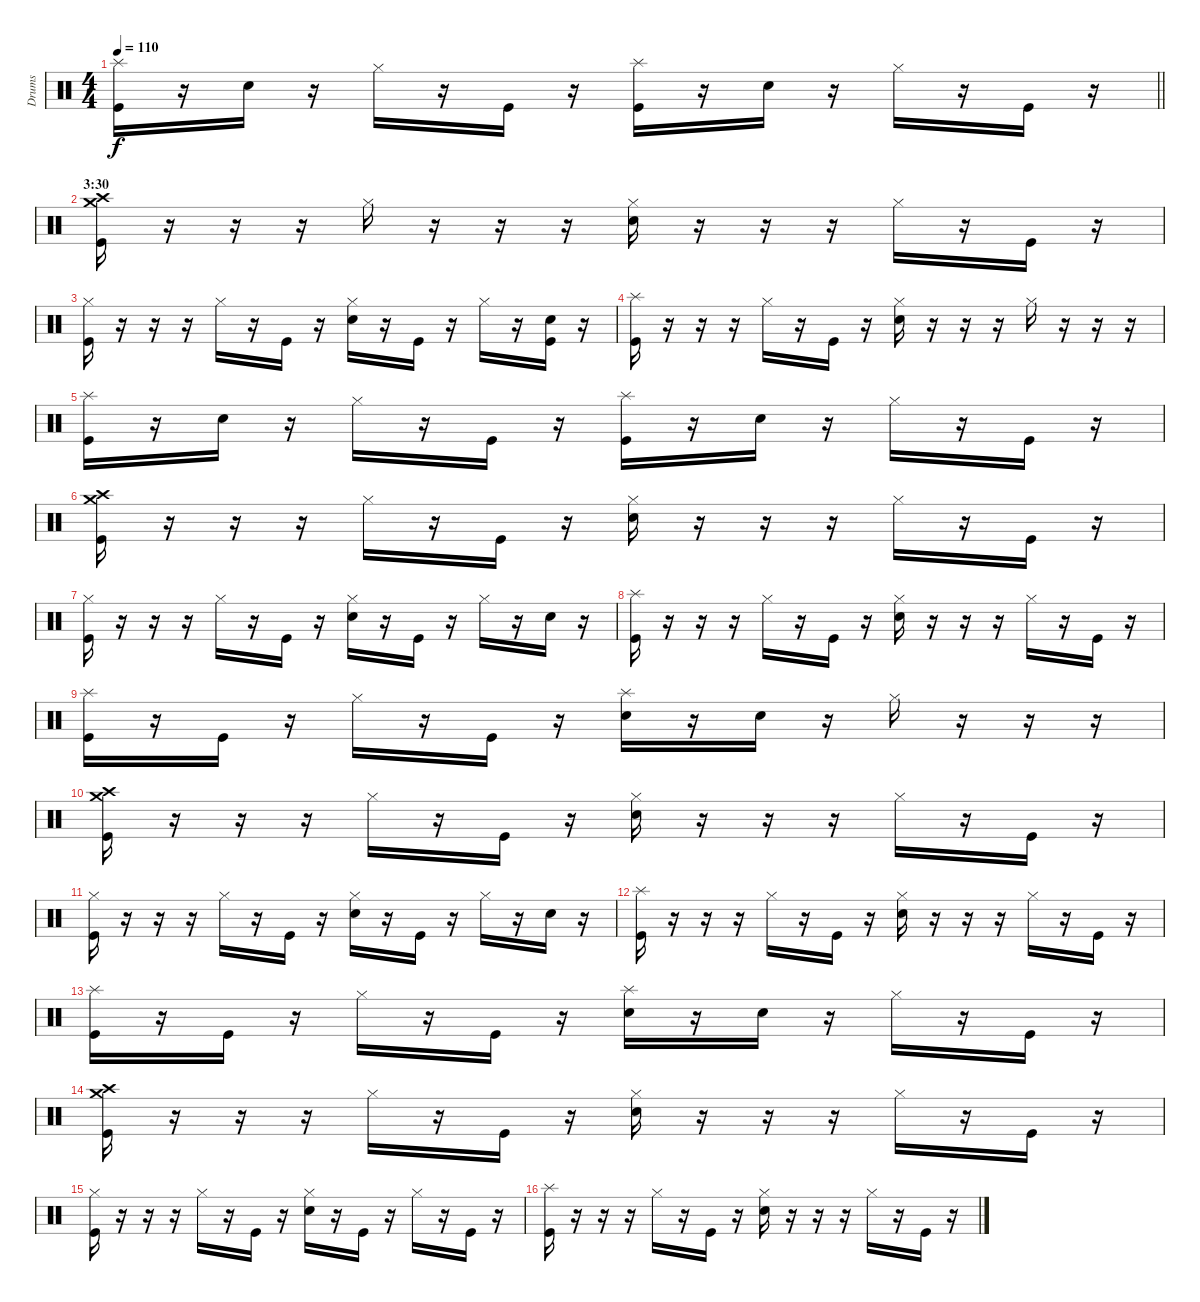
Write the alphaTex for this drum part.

\track ("Drums" "Drums") {instrument percussion}
\staff {score}
\articulation defaults
\ts (4 4)
\tempo 110
\clef neutral
\barLineRight lightlight
\ks c
("Splash (hit)" "Kick (hit)").16{dy f} r.16 "Snare (hit) 2".16 r.16 "Hi-Hat (closed)".16 r.16 "Kick (hit)".16 r.16 ("Splash (hit)" "Kick (hit)").16 r.16 "Snare (hit) 2".16 r.16 "Hi-Hat (closed)".16 r.16 "Kick (hit)".16 r.16 |
\section ("" "3:30")
("Crash high (hit)" "Crash medium (hit)" "Kick (hit)").16 r.16 r.16 r.16 "Hi-Hat (closed)".16 r.16 r.16 r.16 ("Hi-Hat (closed)" "Snare (hit) 2").16 r.16 r.16 r.16 "Hi-Hat (closed)".16 r.16 "Kick (hit)".16 r.16 |
("Hi-Hat (closed)" "Kick (hit)").16 r.16 r.16 r.16 "Hi-Hat (closed)".16 r.16 "Kick (hit)".16 r.16 ("Hi-Hat (closed)" "Snare (hit) 2").16 r.16 "Kick (hit)".16 r.16 "Hi-Hat (closed)".16 r.16 ("Snare (hit) 2" "Kick (hit)").16 r.16 |
("Splash (hit)" "Kick (hit)").16 r.16 r.16 r.16 "Hi-Hat (closed)".16 r.16 "Kick (hit)".16 r.16 ("Hi-Hat (closed)" "Snare (hit) 2").16 r.16 r.16 r.16 "Hi-Hat (closed)".16 r.16 r.16 r.16 |
("Splash (hit)" "Kick (hit)").16 r.16 "Snare (hit) 2".16 r.16 "Hi-Hat (closed)".16 r.16 "Kick (hit)".16 r.16 ("Splash (hit)" "Kick (hit)").16 r.16 "Snare (hit) 2".16 r.16 "Hi-Hat (closed)".16 r.16 "Kick (hit)".16 r.16 |
("Crash high (hit)" "Crash medium (hit)" "Kick (hit)").16 r.16 r.16 r.16 "Hi-Hat (closed)".16 r.16 "Kick (hit)".16 r.16 ("Hi-Hat (closed)" "Snare (hit) 2").16 r.16 r.16 r.16 "Hi-Hat (closed)".16 r.16 "Kick (hit)".16 r.16 |
("Hi-Hat (closed)" "Kick (hit)").16 r.16 r.16 r.16 "Hi-Hat (closed)".16 r.16 "Kick (hit)".16 r.16 ("Hi-Hat (closed)" "Snare (hit) 2").16 r.16 "Kick (hit)".16 r.16 "Hi-Hat (closed)".16 r.16 "Snare (hit) 2".16 r.16 |
("Splash (hit)" "Kick (hit)").16 r.16 r.16 r.16 "Hi-Hat (closed)".16 r.16 "Kick (hit)".16 r.16 ("Hi-Hat (closed)" "Snare (hit) 2").16 r.16 r.16 r.16 "Hi-Hat (closed)".16 r.16 "Kick (hit)".16 r.16 |
("Splash (hit)" "Kick (hit)").16 r.16 "Kick (hit)".16 r.16 "Hi-Hat (closed)".16 r.16 "Kick (hit)".16 r.16 ("Splash (hit)" "Snare (hit) 2").16 r.16 "Snare (hit) 2".16 r.16 "Hi-Hat (closed)".16 r.16 r.16 r.16 |
("Crash high (hit)" "Crash medium (hit)" "Kick (hit)").16 r.16 r.16 r.16 "Hi-Hat (closed)".16 r.16 "Kick (hit)".16 r.16 ("Hi-Hat (closed)" "Snare (hit) 2").16 r.16 r.16 r.16 "Hi-Hat (closed)".16 r.16 "Kick (hit)".16 r.16 |
("Hi-Hat (closed)" "Kick (hit)").16 r.16 r.16 r.16 "Hi-Hat (closed)".16 r.16 "Kick (hit)".16 r.16 ("Hi-Hat (closed)" "Snare (hit) 2").16 r.16 "Kick (hit)".16 r.16 "Hi-Hat (closed)".16 r.16 "Snare (hit) 2".16 r.16 |
("Splash (hit)" "Kick (hit)").16 r.16 r.16 r.16 "Hi-Hat (closed)".16 r.16 "Kick (hit)".16 r.16 ("Hi-Hat (closed)" "Snare (hit) 2").16 r.16 r.16 r.16 "Hi-Hat (closed)".16 r.16 "Kick (hit)".16 r.16 |
("Splash (hit)" "Kick (hit)").16 r.16 "Kick (hit)".16 r.16 "Hi-Hat (closed)".16 r.16 "Kick (hit)".16 r.16 ("Splash (hit)" "Snare (hit) 2").16 r.16 "Snare (hit) 2".16 r.16 "Hi-Hat (closed)".16 r.16 "Kick (hit)".16 r.16 |
("Crash high (hit)" "Crash medium (hit)" "Kick (hit)").16 r.16 r.16 r.16 "Hi-Hat (closed)".16 r.16 "Kick (hit)".16 r.16 ("Hi-Hat (closed)" "Snare (hit) 2").16 r.16 r.16 r.16 "Hi-Hat (closed)".16 r.16 "Kick (hit)".16 r.16 |
("Hi-Hat (closed)" "Kick (hit)").16 r.16 r.16 r.16 "Hi-Hat (closed)".16 r.16 "Kick (hit)".16 r.16 ("Hi-Hat (closed)" "Snare (hit) 2").16 r.16 "Kick (hit)".16 r.16 "Hi-Hat (closed)".16 r.16 "Kick (hit)".16 r.16 |
("Splash (hit)" "Kick (hit)").16 r.16 r.16 r.16 "Hi-Hat (closed)".16 r.16 "Kick (hit)".16 r.16 ("Hi-Hat (closed)" "Snare (hit) 2").16 r.16 r.16 r.16 "Hi-Hat (closed)".16 r.16 "Kick (hit)".16 r.16
